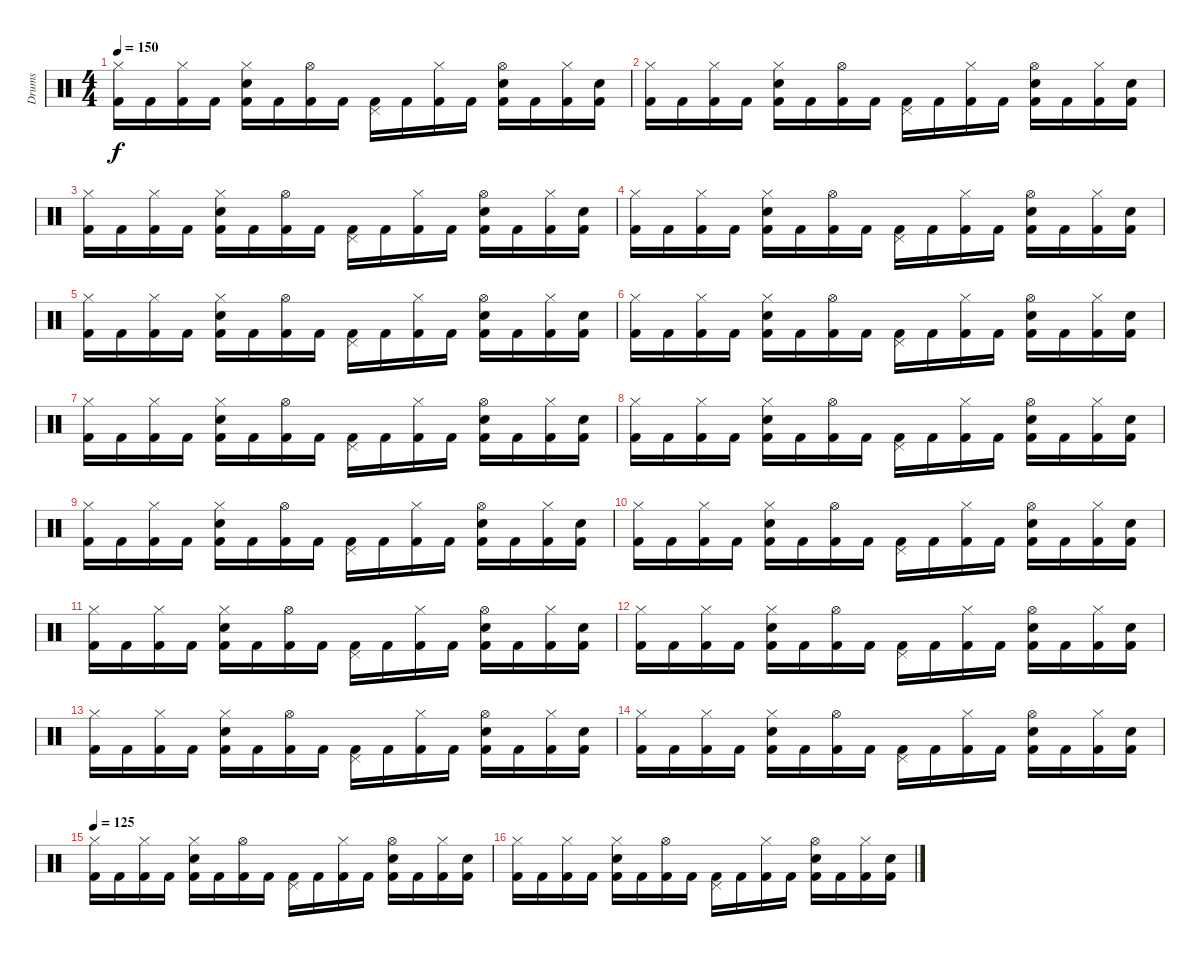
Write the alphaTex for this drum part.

\track ("Drums" "Drums") {instrument percussion}
\staff {score}
\articulation defaults
\ts (4 4)
\tempo 150
\clef neutral
\ks c
("Hi-Hat (closed)" "Kick (hit) 2").16{dy f} "Kick (hit) 2".16 ("Hi-Hat (closed)" "Kick (hit) 2").16 "Kick (hit) 2".16 ("Hi-Hat (closed)" "Kick (hit) 2" "Snare (hit) 2").16 "Kick (hit) 2".16 ("Hi-Hat (open)" "Kick (hit) 2").16 "Kick (hit) 2".16 ("Pedal Hi-Hat (hit)" "Kick (hit) 2").16 "Kick (hit) 2".16 ("Hi-Hat (closed)" "Kick (hit) 2").16 "Kick (hit) 2".16 ("Hi-Hat (open)" "Kick (hit) 2" "Snare (hit) 2").16 "Kick (hit) 2".16 ("Hi-Hat (closed)" "Kick (hit) 2").16 ("Kick (hit) 2" "Snare (hit) 2").16 |
("Hi-Hat (closed)" "Kick (hit) 2").16 "Kick (hit) 2".16 ("Hi-Hat (closed)" "Kick (hit) 2").16 "Kick (hit) 2".16 ("Hi-Hat (closed)" "Kick (hit) 2" "Snare (hit) 2").16 "Kick (hit) 2".16 ("Hi-Hat (open)" "Kick (hit) 2").16 "Kick (hit) 2".16 ("Pedal Hi-Hat (hit)" "Kick (hit) 2").16 "Kick (hit) 2".16 ("Hi-Hat (closed)" "Kick (hit) 2").16 "Kick (hit) 2".16 ("Hi-Hat (open)" "Kick (hit) 2" "Snare (hit) 2").16 "Kick (hit) 2".16 ("Hi-Hat (closed)" "Kick (hit) 2").16 ("Kick (hit) 2" "Snare (hit) 2").16 |
("Hi-Hat (closed)" "Kick (hit) 2").16 "Kick (hit) 2".16 ("Hi-Hat (closed)" "Kick (hit) 2").16 "Kick (hit) 2".16 ("Hi-Hat (closed)" "Kick (hit) 2" "Snare (hit) 2").16 "Kick (hit) 2".16 ("Hi-Hat (open)" "Kick (hit) 2").16 "Kick (hit) 2".16 ("Pedal Hi-Hat (hit)" "Kick (hit) 2").16 "Kick (hit) 2".16 ("Hi-Hat (closed)" "Kick (hit) 2").16 "Kick (hit) 2".16 ("Hi-Hat (open)" "Kick (hit) 2" "Snare (hit) 2").16 "Kick (hit) 2".16 ("Hi-Hat (closed)" "Kick (hit) 2").16 ("Kick (hit) 2" "Snare (hit) 2").16 |
("Hi-Hat (closed)" "Kick (hit) 2").16 "Kick (hit) 2".16 ("Hi-Hat (closed)" "Kick (hit) 2").16 "Kick (hit) 2".16 ("Hi-Hat (closed)" "Kick (hit) 2" "Snare (hit) 2").16 "Kick (hit) 2".16 ("Hi-Hat (open)" "Kick (hit) 2").16 "Kick (hit) 2".16 ("Pedal Hi-Hat (hit)" "Kick (hit) 2").16 "Kick (hit) 2".16 ("Hi-Hat (closed)" "Kick (hit) 2").16 "Kick (hit) 2".16 ("Hi-Hat (open)" "Kick (hit) 2" "Snare (hit) 2").16 "Kick (hit) 2".16 ("Hi-Hat (closed)" "Kick (hit) 2").16 ("Kick (hit) 2" "Snare (hit) 2").16 |
("Hi-Hat (closed)" "Kick (hit) 2").16 "Kick (hit) 2".16 ("Hi-Hat (closed)" "Kick (hit) 2").16 "Kick (hit) 2".16 ("Hi-Hat (closed)" "Kick (hit) 2" "Snare (hit) 2").16 "Kick (hit) 2".16 ("Hi-Hat (open)" "Kick (hit) 2").16 "Kick (hit) 2".16 ("Pedal Hi-Hat (hit)" "Kick (hit) 2").16 "Kick (hit) 2".16 ("Hi-Hat (closed)" "Kick (hit) 2").16 "Kick (hit) 2".16 ("Hi-Hat (open)" "Kick (hit) 2" "Snare (hit) 2").16 "Kick (hit) 2".16 ("Hi-Hat (closed)" "Kick (hit) 2").16 ("Kick (hit) 2" "Snare (hit) 2").16 |
("Hi-Hat (closed)" "Kick (hit) 2").16 "Kick (hit) 2".16 ("Hi-Hat (closed)" "Kick (hit) 2").16 "Kick (hit) 2".16 ("Hi-Hat (closed)" "Kick (hit) 2" "Snare (hit) 2").16 "Kick (hit) 2".16 ("Hi-Hat (open)" "Kick (hit) 2").16 "Kick (hit) 2".16 ("Pedal Hi-Hat (hit)" "Kick (hit) 2").16 "Kick (hit) 2".16 ("Hi-Hat (closed)" "Kick (hit) 2").16 "Kick (hit) 2".16 ("Hi-Hat (open)" "Kick (hit) 2" "Snare (hit) 2").16 "Kick (hit) 2".16 ("Hi-Hat (closed)" "Kick (hit) 2").16 ("Kick (hit) 2" "Snare (hit) 2").16 |
("Hi-Hat (closed)" "Kick (hit) 2").16 "Kick (hit) 2".16 ("Hi-Hat (closed)" "Kick (hit) 2").16 "Kick (hit) 2".16 ("Hi-Hat (closed)" "Kick (hit) 2" "Snare (hit) 2").16 "Kick (hit) 2".16 ("Hi-Hat (open)" "Kick (hit) 2").16 "Kick (hit) 2".16 ("Pedal Hi-Hat (hit)" "Kick (hit) 2").16 "Kick (hit) 2".16 ("Hi-Hat (closed)" "Kick (hit) 2").16 "Kick (hit) 2".16 ("Hi-Hat (open)" "Kick (hit) 2" "Snare (hit) 2").16 "Kick (hit) 2".16 ("Hi-Hat (closed)" "Kick (hit) 2").16 ("Kick (hit) 2" "Snare (hit) 2").16 |
("Hi-Hat (closed)" "Kick (hit) 2").16 "Kick (hit) 2".16 ("Hi-Hat (closed)" "Kick (hit) 2").16 "Kick (hit) 2".16 ("Hi-Hat (closed)" "Kick (hit) 2" "Snare (hit) 2").16 "Kick (hit) 2".16 ("Hi-Hat (open)" "Kick (hit) 2").16 "Kick (hit) 2".16 ("Pedal Hi-Hat (hit)" "Kick (hit) 2").16 "Kick (hit) 2".16 ("Hi-Hat (closed)" "Kick (hit) 2").16 "Kick (hit) 2".16 ("Hi-Hat (open)" "Kick (hit) 2" "Snare (hit) 2").16 "Kick (hit) 2".16 ("Hi-Hat (closed)" "Kick (hit) 2").16 ("Kick (hit) 2" "Snare (hit) 2").16 |
("Hi-Hat (closed)" "Kick (hit) 2").16 "Kick (hit) 2".16 ("Hi-Hat (closed)" "Kick (hit) 2").16 "Kick (hit) 2".16 ("Hi-Hat (closed)" "Kick (hit) 2" "Snare (hit) 2").16 "Kick (hit) 2".16 ("Hi-Hat (open)" "Kick (hit) 2").16 "Kick (hit) 2".16 ("Pedal Hi-Hat (hit)" "Kick (hit) 2").16 "Kick (hit) 2".16 ("Hi-Hat (closed)" "Kick (hit) 2").16 "Kick (hit) 2".16 ("Hi-Hat (open)" "Kick (hit) 2" "Snare (hit) 2").16 "Kick (hit) 2".16 ("Hi-Hat (closed)" "Kick (hit) 2").16 ("Kick (hit) 2" "Snare (hit) 2").16 |
("Hi-Hat (closed)" "Kick (hit) 2").16 "Kick (hit) 2".16 ("Hi-Hat (closed)" "Kick (hit) 2").16 "Kick (hit) 2".16 ("Hi-Hat (closed)" "Kick (hit) 2" "Snare (hit) 2").16 "Kick (hit) 2".16 ("Hi-Hat (open)" "Kick (hit) 2").16 "Kick (hit) 2".16 ("Pedal Hi-Hat (hit)" "Kick (hit) 2").16 "Kick (hit) 2".16 ("Hi-Hat (closed)" "Kick (hit) 2").16 "Kick (hit) 2".16 ("Hi-Hat (open)" "Kick (hit) 2" "Snare (hit) 2").16 "Kick (hit) 2".16 ("Hi-Hat (closed)" "Kick (hit) 2").16 ("Kick (hit) 2" "Snare (hit) 2").16 |
("Hi-Hat (closed)" "Kick (hit) 2").16 "Kick (hit) 2".16 ("Hi-Hat (closed)" "Kick (hit) 2").16 "Kick (hit) 2".16 ("Hi-Hat (closed)" "Kick (hit) 2" "Snare (hit) 2").16 "Kick (hit) 2".16 ("Hi-Hat (open)" "Kick (hit) 2").16 "Kick (hit) 2".16 ("Pedal Hi-Hat (hit)" "Kick (hit) 2").16 "Kick (hit) 2".16 ("Hi-Hat (closed)" "Kick (hit) 2").16 "Kick (hit) 2".16 ("Hi-Hat (open)" "Kick (hit) 2" "Snare (hit) 2").16 "Kick (hit) 2".16 ("Hi-Hat (closed)" "Kick (hit) 2").16 ("Kick (hit) 2" "Snare (hit) 2").16 |
("Hi-Hat (closed)" "Kick (hit) 2").16 "Kick (hit) 2".16 ("Hi-Hat (closed)" "Kick (hit) 2").16 "Kick (hit) 2".16 ("Hi-Hat (closed)" "Kick (hit) 2" "Snare (hit) 2").16 "Kick (hit) 2".16 ("Hi-Hat (open)" "Kick (hit) 2").16 "Kick (hit) 2".16 ("Pedal Hi-Hat (hit)" "Kick (hit) 2").16 "Kick (hit) 2".16 ("Hi-Hat (closed)" "Kick (hit) 2").16 "Kick (hit) 2".16 ("Hi-Hat (open)" "Kick (hit) 2" "Snare (hit) 2").16 "Kick (hit) 2".16 ("Hi-Hat (closed)" "Kick (hit) 2").16 ("Kick (hit) 2" "Snare (hit) 2").16 |
("Hi-Hat (closed)" "Kick (hit) 2").16 "Kick (hit) 2".16 ("Hi-Hat (closed)" "Kick (hit) 2").16 "Kick (hit) 2".16 ("Hi-Hat (closed)" "Kick (hit) 2" "Snare (hit) 2").16 "Kick (hit) 2".16 ("Hi-Hat (open)" "Kick (hit) 2").16 "Kick (hit) 2".16 ("Pedal Hi-Hat (hit)" "Kick (hit) 2").16 "Kick (hit) 2".16 ("Hi-Hat (closed)" "Kick (hit) 2").16 "Kick (hit) 2".16 ("Hi-Hat (open)" "Kick (hit) 2" "Snare (hit) 2").16 "Kick (hit) 2".16 ("Hi-Hat (closed)" "Kick (hit) 2").16 ("Kick (hit) 2" "Snare (hit) 2").16 |
("Hi-Hat (closed)" "Kick (hit) 2").16 "Kick (hit) 2".16 ("Hi-Hat (closed)" "Kick (hit) 2").16 "Kick (hit) 2".16 ("Hi-Hat (closed)" "Kick (hit) 2" "Snare (hit) 2").16 "Kick (hit) 2".16 ("Hi-Hat (open)" "Kick (hit) 2").16 "Kick (hit) 2".16 ("Pedal Hi-Hat (hit)" "Kick (hit) 2").16 "Kick (hit) 2".16 ("Hi-Hat (closed)" "Kick (hit) 2").16 "Kick (hit) 2".16 ("Hi-Hat (open)" "Kick (hit) 2" "Snare (hit) 2").16 "Kick (hit) 2".16 ("Hi-Hat (closed)" "Kick (hit) 2").16 ("Kick (hit) 2" "Snare (hit) 2").16 |
\tempo 125
("Hi-Hat (closed)" "Kick (hit) 2").16{volume 10} "Kick (hit) 2".16 ("Hi-Hat (closed)" "Kick (hit) 2").16 "Kick (hit) 2".16 ("Hi-Hat (closed)" "Kick (hit) 2" "Snare (hit) 2").16 "Kick (hit) 2".16 ("Hi-Hat (open)" "Kick (hit) 2").16 "Kick (hit) 2".16 ("Pedal Hi-Hat (hit)" "Kick (hit) 2").16 "Kick (hit) 2".16 ("Hi-Hat (closed)" "Kick (hit) 2").16 "Kick (hit) 2".16 ("Hi-Hat (open)" "Kick (hit) 2" "Snare (hit) 2").16 "Kick (hit) 2".16 ("Hi-Hat (closed)" "Kick (hit) 2").16 ("Kick (hit) 2" "Snare (hit) 2").16 |
("Hi-Hat (closed)" "Kick (hit) 2").16 "Kick (hit) 2".16 ("Hi-Hat (closed)" "Kick (hit) 2").16 "Kick (hit) 2".16 ("Hi-Hat (closed)" "Kick (hit) 2" "Snare (hit) 2").16 "Kick (hit) 2".16 ("Hi-Hat (open)" "Kick (hit) 2").16 "Kick (hit) 2".16 ("Pedal Hi-Hat (hit)" "Kick (hit) 2").16 "Kick (hit) 2".16 ("Hi-Hat (closed)" "Kick (hit) 2").16 "Kick (hit) 2".16 ("Hi-Hat (open)" "Kick (hit) 2" "Snare (hit) 2").16 "Kick (hit) 2".16 ("Hi-Hat (closed)" "Kick (hit) 2").16 ("Kick (hit) 2" "Snare (hit) 2").16
